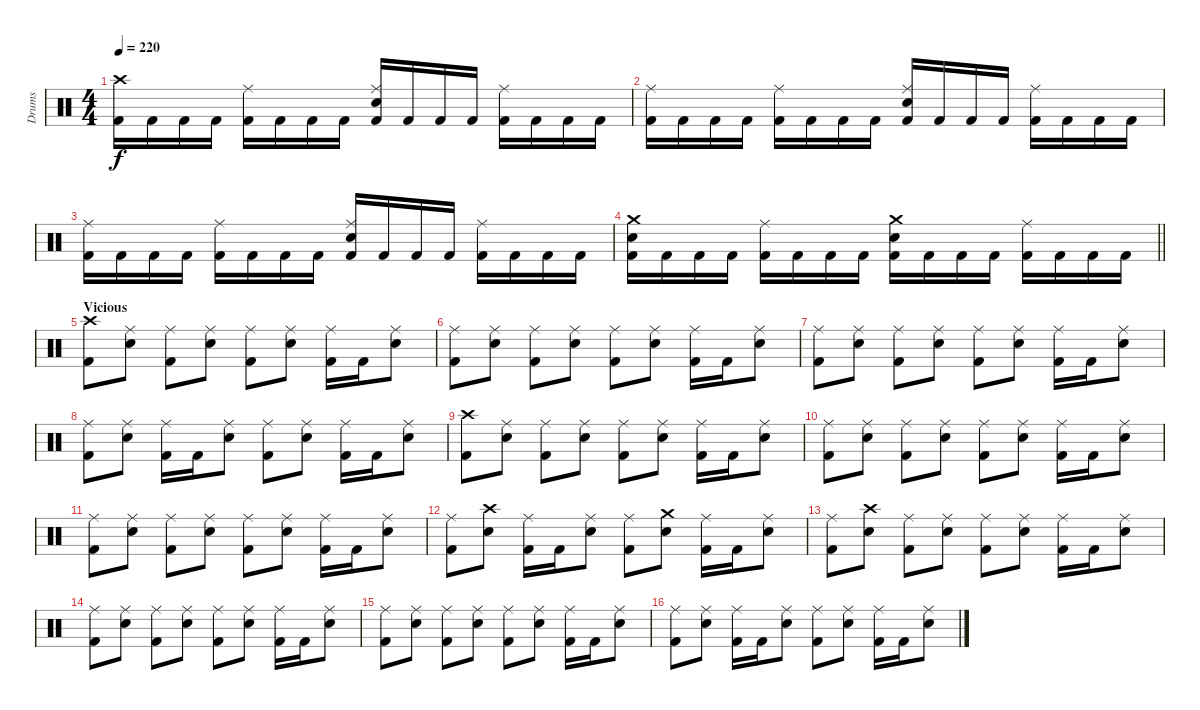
\track ("Drums" "Drums") {instrument percussion}
\staff {score}
\articulation defaults
\ts (4 4)
\tempo 220
\clef neutral
\ks c
("Crash high (hit)" "Kick (hit) 2").16{dy f} "Kick (hit) 2".16 "Kick (hit) 2".16 "Kick (hit) 2".16 ("Ride (middle)" "Kick (hit) 2").16 "Kick (hit) 2".16 "Kick (hit) 2".16 "Kick (hit) 2".16 ("Ride (middle)" "Snare (hit) 2" "Kick (hit) 2").16 "Kick (hit) 2".16 "Kick (hit) 2".16 "Kick (hit) 2".16 ("Ride (middle)" "Kick (hit) 2").16 "Kick (hit) 2".16 "Kick (hit) 2".16 "Kick (hit) 2".16 |
("Ride (middle)" "Kick (hit) 2").16 "Kick (hit) 2".16 "Kick (hit) 2".16 "Kick (hit) 2".16 ("Ride (middle)" "Kick (hit) 2").16 "Kick (hit) 2".16 "Kick (hit) 2".16 "Kick (hit) 2".16 ("Ride (middle)" "Snare (hit) 2" "Kick (hit) 2").16 "Kick (hit) 2".16 "Kick (hit) 2".16 "Kick (hit) 2".16 ("Ride (middle)" "Kick (hit) 2").16 "Kick (hit) 2".16 "Kick (hit) 2".16 "Kick (hit) 2".16 |
("Ride (middle)" "Kick (hit) 2").16 "Kick (hit) 2".16 "Kick (hit) 2".16 "Kick (hit) 2".16 ("Ride (middle)" "Kick (hit) 2").16 "Kick (hit) 2".16 "Kick (hit) 2".16 "Kick (hit) 2".16 ("Ride (middle)" "Snare (hit) 2" "Kick (hit) 2").16 "Kick (hit) 2".16 "Kick (hit) 2".16 "Kick (hit) 2".16 ("Ride (middle)" "Kick (hit) 2").16 "Kick (hit) 2".16 "Kick (hit) 2".16 "Kick (hit) 2".16 |
\barLineRight lightlight
("Crash medium (hit)" "Snare (hit) 2" "Kick (hit) 2").16 "Kick (hit) 2".16 "Kick (hit) 2".16 "Kick (hit) 2".16 ("Ride (middle)" "Kick (hit) 2").16 "Kick (hit) 2".16 "Kick (hit) 2".16 "Kick (hit) 2".16 ("Crash medium (hit)" "Snare (hit) 2" "Kick (hit) 2").16 "Kick (hit) 2".16 "Kick (hit) 2".16 "Kick (hit) 2".16 ("Ride (middle)" "Kick (hit) 2").16 "Kick (hit) 2".16 "Kick (hit) 2".16 "Kick (hit) 2".16 |
\section ("" "Vicious")
("Crash high (hit)" "Kick (hit) 2").8 ("Ride (middle)" "Snare (hit) 2").8 ("Ride (middle)" "Kick (hit) 2").8 ("Ride (middle)" "Snare (hit) 2").8 ("Ride (middle)" "Kick (hit) 2").8 ("Ride (middle)" "Snare (hit) 2").8 ("Ride (middle)" "Kick (hit) 2").16 "Kick (hit) 2".16 ("Ride (middle)" "Snare (hit) 2").8 |
("Ride (middle)" "Kick (hit) 2").8 ("Ride (middle)" "Snare (hit) 2").8 ("Ride (middle)" "Kick (hit) 2").8 ("Ride (middle)" "Snare (hit) 2").8 ("Ride (middle)" "Kick (hit) 2").8 ("Ride (middle)" "Snare (hit) 2").8 ("Ride (middle)" "Kick (hit) 2").16 "Kick (hit) 2".16 ("Ride (middle)" "Snare (hit) 2").8 |
("Ride (middle)" "Kick (hit) 2").8 ("Ride (middle)" "Snare (hit) 2").8 ("Ride (middle)" "Kick (hit) 2").8 ("Ride (middle)" "Snare (hit) 2").8 ("Ride (middle)" "Kick (hit) 2").8 ("Ride (middle)" "Snare (hit) 2").8 ("Ride (middle)" "Kick (hit) 2").16 "Kick (hit) 2".16 ("Ride (middle)" "Snare (hit) 2").8 |
("Ride (middle)" "Kick (hit) 2").8 ("Ride (middle)" "Snare (hit) 2").8 ("Ride (middle)" "Kick (hit) 2").16 "Kick (hit) 2".16 ("Ride (middle)" "Snare (hit) 2").8 ("Ride (middle)" "Kick (hit) 2").8 ("Ride (middle)" "Snare (hit) 2").8 ("Ride (middle)" "Kick (hit) 2").16 "Kick (hit) 2".16 ("Ride (middle)" "Snare (hit) 2").8 |
("Crash high (hit)" "Kick (hit) 2").8 ("Ride (middle)" "Snare (hit) 2").8 ("Ride (middle)" "Kick (hit) 2").8 ("Ride (middle)" "Snare (hit) 2").8 ("Ride (middle)" "Kick (hit) 2").8 ("Ride (middle)" "Snare (hit) 2").8 ("Ride (middle)" "Kick (hit) 2").16 "Kick (hit) 2".16 ("Ride (middle)" "Snare (hit) 2").8 |
("Ride (middle)" "Kick (hit) 2").8 ("Ride (middle)" "Snare (hit) 2").8 ("Ride (middle)" "Kick (hit) 2").8 ("Ride (middle)" "Snare (hit) 2").8 ("Ride (middle)" "Kick (hit) 2").8 ("Ride (middle)" "Snare (hit) 2").8 ("Ride (middle)" "Kick (hit) 2").16 "Kick (hit) 2".16 ("Ride (middle)" "Snare (hit) 2").8 |
("Ride (middle)" "Kick (hit) 2").8 ("Ride (middle)" "Snare (hit) 2").8 ("Ride (middle)" "Kick (hit) 2").8 ("Ride (middle)" "Snare (hit) 2").8 ("Ride (middle)" "Kick (hit) 2").8 ("Ride (middle)" "Snare (hit) 2").8 ("Ride (middle)" "Kick (hit) 2").16 "Kick (hit) 2".16 ("Ride (middle)" "Snare (hit) 2").8 |
("Ride (middle)" "Kick (hit) 2").8 ("Crash high (hit)" "Snare (hit) 2").8 ("Ride (middle)" "Kick (hit) 2").16 "Kick (hit) 2".16 ("Ride (middle)" "Snare (hit) 2").8 ("Ride (middle)" "Kick (hit) 2").8 ("Crash medium (hit)" "Snare (hit) 2").8 ("Ride (middle)" "Kick (hit) 2").16 "Kick (hit) 2".16 ("Ride (middle)" "Snare (hit) 2").8 |
("Ride (middle)" "Kick (hit) 2").8 ("Crash high (hit)" "Snare (hit) 2").8 ("Ride (middle)" "Kick (hit) 2").8 ("Ride (middle)" "Snare (hit) 2").8 ("Ride (middle)" "Kick (hit) 2").8 ("Ride (middle)" "Snare (hit) 2").8 ("Ride (middle)" "Kick (hit) 2").16 "Kick (hit) 2".16 ("Ride (middle)" "Snare (hit) 2").8 |
("Ride (middle)" "Kick (hit) 2").8 ("Ride (middle)" "Snare (hit) 2").8 ("Ride (middle)" "Kick (hit) 2").8 ("Ride (middle)" "Snare (hit) 2").8 ("Ride (middle)" "Kick (hit) 2").8 ("Ride (middle)" "Snare (hit) 2").8 ("Ride (middle)" "Kick (hit) 2").16 "Kick (hit) 2".16 ("Ride (middle)" "Snare (hit) 2").8 |
("Ride (middle)" "Kick (hit) 2").8 ("Ride (middle)" "Snare (hit) 2").8 ("Ride (middle)" "Kick (hit) 2").8 ("Ride (middle)" "Snare (hit) 2").8 ("Ride (middle)" "Kick (hit) 2").8 ("Ride (middle)" "Snare (hit) 2").8 ("Ride (middle)" "Kick (hit) 2").16 "Kick (hit) 2".16 ("Ride (middle)" "Snare (hit) 2").8 |
("Ride (middle)" "Kick (hit) 2").8 ("Ride (middle)" "Snare (hit) 2").8 ("Ride (middle)" "Kick (hit) 2").16 "Kick (hit) 2".16 ("Ride (middle)" "Snare (hit) 2").8 ("Ride (middle)" "Kick (hit) 2").8 ("Ride (middle)" "Snare (hit) 2").8 ("Ride (middle)" "Kick (hit) 2").16 "Kick (hit) 2".16 ("Ride (middle)" "Snare (hit) 2").8
